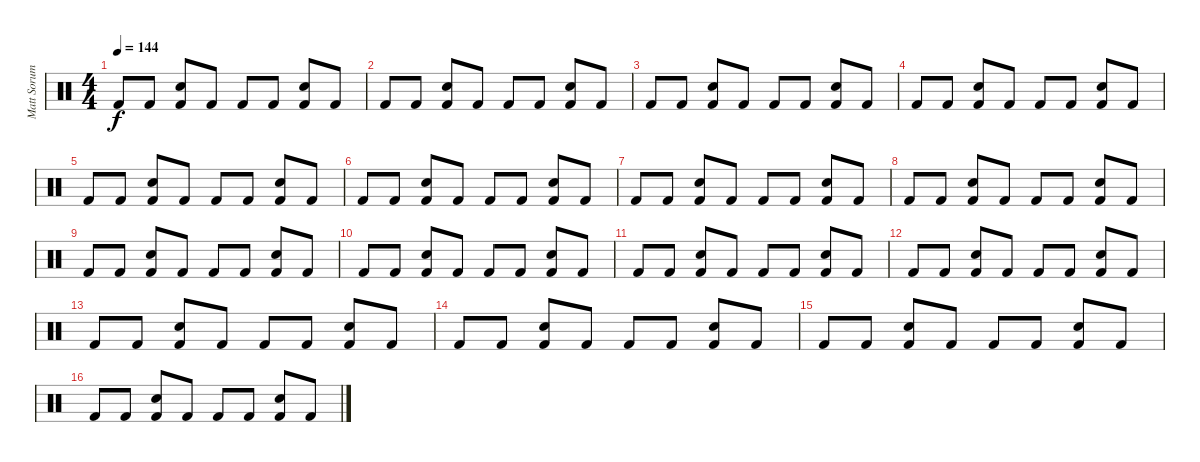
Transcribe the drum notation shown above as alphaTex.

\track ("Matt Sorum" "Matt Sorum") {instrument percussion}
\staff {score}
\articulation defaults
\ts (4 4)
\tempo 144
\clef neutral
\ks c "Kick (hit) 2".8{dy f} "Kick (hit) 2".8
("Kick (hit) 2" "Snare (hit) 2").8 "Kick (hit) 2".8 "Kick (hit) 2".8 "Kick (hit) 2".8 ("Kick (hit) 2" "Snare (hit) 2").8 "Kick (hit) 2".8 |
"Kick (hit) 2".8 "Kick (hit) 2".8 ("Kick (hit) 2" "Snare (hit) 2").8 "Kick (hit) 2".8 "Kick (hit) 2".8 "Kick (hit) 2".8 ("Kick (hit) 2" "Snare (hit) 2").8 "Kick (hit) 2".8 |
"Kick (hit) 2".8 "Kick (hit) 2".8 ("Kick (hit) 2" "Snare (hit) 2").8 "Kick (hit) 2".8 "Kick (hit) 2".8 "Kick (hit) 2".8 ("Kick (hit) 2" "Snare (hit) 2").8 "Kick (hit) 2".8 |
"Kick (hit) 2".8 "Kick (hit) 2".8 ("Kick (hit) 2" "Snare (hit) 2").8 "Kick (hit) 2".8 "Kick (hit) 2".8 "Kick (hit) 2".8 ("Kick (hit) 2" "Snare (hit) 2").8 "Kick (hit) 2".8 |
"Kick (hit) 2".8 "Kick (hit) 2".8 ("Kick (hit) 2" "Snare (hit) 2").8 "Kick (hit) 2".8 "Kick (hit) 2".8 "Kick (hit) 2".8 ("Kick (hit) 2" "Snare (hit) 2").8 "Kick (hit) 2".8 |
"Kick (hit) 2".8 "Kick (hit) 2".8 ("Kick (hit) 2" "Snare (hit) 2").8 "Kick (hit) 2".8 "Kick (hit) 2".8 "Kick (hit) 2".8 ("Kick (hit) 2" "Snare (hit) 2").8 "Kick (hit) 2".8 |
"Kick (hit) 2".8 "Kick (hit) 2".8 ("Kick (hit) 2" "Snare (hit) 2").8 "Kick (hit) 2".8 "Kick (hit) 2".8 "Kick (hit) 2".8 ("Kick (hit) 2" "Snare (hit) 2").8 "Kick (hit) 2".8 |
"Kick (hit) 2".8 "Kick (hit) 2".8 ("Kick (hit) 2" "Snare (hit) 2").8 "Kick (hit) 2".8 "Kick (hit) 2".8 "Kick (hit) 2".8 ("Kick (hit) 2" "Snare (hit) 2").8 "Kick (hit) 2".8 |
"Kick (hit) 2".8 "Kick (hit) 2".8 ("Kick (hit) 2" "Snare (hit) 2").8 "Kick (hit) 2".8 "Kick (hit) 2".8 "Kick (hit) 2".8 ("Kick (hit) 2" "Snare (hit) 2").8 "Kick (hit) 2".8 |
"Kick (hit) 2".8 "Kick (hit) 2".8 ("Kick (hit) 2" "Snare (hit) 2").8 "Kick (hit) 2".8 "Kick (hit) 2".8 "Kick (hit) 2".8 ("Kick (hit) 2" "Snare (hit) 2").8 "Kick (hit) 2".8 |
"Kick (hit) 2".8 "Kick (hit) 2".8 ("Kick (hit) 2" "Snare (hit) 2").8 "Kick (hit) 2".8 "Kick (hit) 2".8 "Kick (hit) 2".8 ("Kick (hit) 2" "Snare (hit) 2").8 "Kick (hit) 2".8 |
"Kick (hit) 2".8 "Kick (hit) 2".8 ("Kick (hit) 2" "Snare (hit) 2").8 "Kick (hit) 2".8 "Kick (hit) 2".8 "Kick (hit) 2".8 ("Kick (hit) 2" "Snare (hit) 2").8 "Kick (hit) 2".8 |
"Kick (hit) 2".8 "Kick (hit) 2".8 ("Kick (hit) 2" "Snare (hit) 2").8 "Kick (hit) 2".8 "Kick (hit) 2".8 "Kick (hit) 2".8 ("Kick (hit) 2" "Snare (hit) 2").8 "Kick (hit) 2".8 |
"Kick (hit) 2".8 "Kick (hit) 2".8 ("Kick (hit) 2" "Snare (hit) 2").8 "Kick (hit) 2".8 "Kick (hit) 2".8 "Kick (hit) 2".8 ("Kick (hit) 2" "Snare (hit) 2").8 "Kick (hit) 2".8 |
"Kick (hit) 2".8 "Kick (hit) 2".8 ("Kick (hit) 2" "Snare (hit) 2").8 "Kick (hit) 2".8 "Kick (hit) 2".8 "Kick (hit) 2".8 ("Kick (hit) 2" "Snare (hit) 2").8 "Kick (hit) 2".8 |
"Kick (hit) 2".8 "Kick (hit) 2".8 ("Kick (hit) 2" "Snare (hit) 2").8 "Kick (hit) 2".8 "Kick (hit) 2".8 "Kick (hit) 2".8 ("Kick (hit) 2" "Snare (hit) 2").8 "Kick (hit) 2".8
